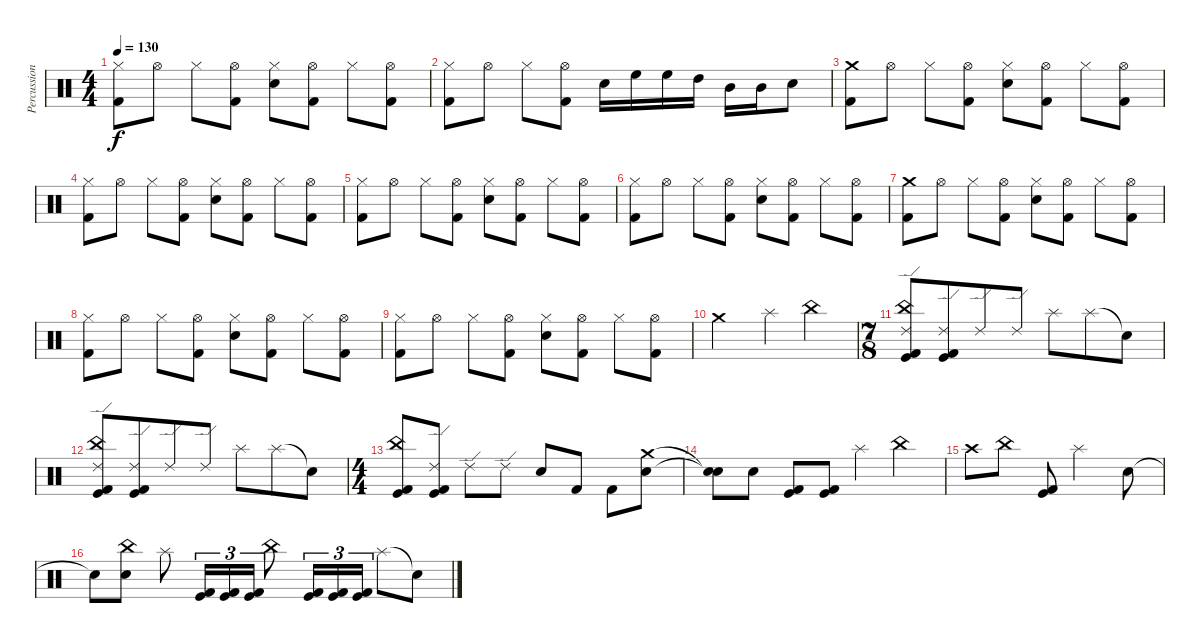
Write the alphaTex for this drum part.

\track ("Percussion" "Percussion") {instrument percussion}
\staff {score}
\articulation defaults
\ts (4 4)
\tempo 130
\clef neutral
\ks c
("Hi-Hat (closed)" "Kick (hit) 2").8{dy f} "Hi-Hat (open)".8 "Hi-Hat (closed)".8 ("Hi-Hat (open)" "Kick (hit) 2").8 ("Hi-Hat (closed)" "Snare (hit) 2").8 ("Hi-Hat (open)" "Kick (hit) 2").8 "Hi-Hat (closed)".8 ("Hi-Hat (open)" "Kick (hit) 2").8 |
("Hi-Hat (closed)" "Kick (hit) 2").8 "Hi-Hat (open)".8 "Hi-Hat (closed)".8 ("Hi-Hat (open)" "Kick (hit) 2").8 "Snare (hit) 2".16 "High Floor Tom (hit)".16 "High Floor Tom (hit)".16 "High Tom (hit)".16 "Mid Tom (hit)".16 "Mid Tom (hit)".16 "Snare (hit) 2".8 |
("Crash medium (hit)" "Kick (hit) 2").8 "Hi-Hat (open)".8 "Hi-Hat (closed)".8 ("Hi-Hat (open)" "Kick (hit) 2").8 ("Hi-Hat (closed)" "Snare (hit) 2").8 ("Hi-Hat (open)" "Kick (hit) 2").8 "Hi-Hat (closed)".8 ("Hi-Hat (open)" "Kick (hit) 2").8 |
("Hi-Hat (closed)" "Kick (hit) 2").8 "Hi-Hat (open)".8 "Hi-Hat (closed)".8 ("Hi-Hat (open)" "Kick (hit) 2").8 ("Hi-Hat (closed)" "Snare (hit) 2").8 ("Hi-Hat (open)" "Kick (hit) 2").8 "Hi-Hat (closed)".8 ("Hi-Hat (open)" "Kick (hit) 2").8 |
("Hi-Hat (closed)" "Kick (hit) 2").8 "Hi-Hat (open)".8 "Hi-Hat (closed)".8 ("Hi-Hat (open)" "Kick (hit) 2").8 ("Hi-Hat (closed)" "Snare (hit) 2").8 ("Hi-Hat (open)" "Kick (hit) 2").8 "Hi-Hat (closed)".8 ("Hi-Hat (open)" "Kick (hit) 2").8 |
("Hi-Hat (closed)" "Kick (hit) 2").8 "Hi-Hat (open)".8 "Hi-Hat (closed)".8 ("Hi-Hat (open)" "Kick (hit) 2").8 ("Hi-Hat (closed)" "Snare (hit) 2").8 ("Hi-Hat (open)" "Kick (hit) 2").8 "Hi-Hat (closed)".8 ("Hi-Hat (open)" "Kick (hit) 2").8 |
("Crash medium (hit)" "Kick (hit) 2").8 "Hi-Hat (open)".8 "Hi-Hat (closed)".8 ("Hi-Hat (open)" "Kick (hit) 2").8 ("Hi-Hat (closed)" "Snare (hit) 2").8 ("Hi-Hat (open)" "Kick (hit) 2").8 "Hi-Hat (closed)".8 ("Hi-Hat (open)" "Kick (hit) 2").8 |
("Hi-Hat (closed)" "Kick (hit) 2").8 "Hi-Hat (open)".8 "Hi-Hat (closed)".8 ("Hi-Hat (open)" "Kick (hit) 2").8 ("Hi-Hat (closed)" "Snare (hit) 2").8 ("Hi-Hat (open)" "Kick (hit) 2").8 "Hi-Hat (closed)".8 ("Hi-Hat (open)" "Kick (hit) 2").8 |
("Hi-Hat (closed)" "Kick (hit) 2").8 "Hi-Hat (open)".8 "Hi-Hat (closed)".8 ("Hi-Hat (open)" "Kick (hit) 2").8 ("Hi-Hat (closed)" "Snare (hit) 2").8 ("Hi-Hat (open)" "Kick (hit) 2").8 "Hi-Hat (closed)".8 ("Hi-Hat (open)" "Kick (hit) 2").8 |
"Crash medium (hit)".2 "Splash (hit)".4 "China (hit)".4 |
\ts (7 8)
("China (hit)" "Ride (edge) 2" "Kick (hit)" "Kick (hit) 2").8 ("Ride (edge) 2" "Kick (hit)" "Kick (hit) 2").8 "Ride (edge) 2".8 "Ride (edge) 2".8 "Splash (hit)".8 "Splash (hit)".8 "Snare (hit)"{t}.8 |
("China (hit)" "Ride (edge) 2" "Kick (hit)" "Kick (hit) 2").8 ("Ride (edge) 2" "Kick (hit)" "Kick (hit) 2").8 "Ride (edge) 2".8 "Ride (edge) 2".8 "Splash (hit)".8 "Splash (hit)".8 "Snare (hit)"{t}.8 |
\ts (4 4)
("China (hit)" "Kick (hit)" "Kick (hit) 2").8 ("Ride (edge) 2" "Kick (hit) 2" "Kick (hit)").8 "Ride (edge) 2".8 "Ride (edge) 2".8 "Snare (hit) 2".8 "Kick (hit) 2".8 "Kick (hit) 2".8 ("Crash medium (hit)" "Snare (hit) 2").8 |
("Snare (hit)"{t} "Snare (hit)"{t}).8 "Snare (hit) 2".8 ("Kick (hit)" "Kick (hit) 2").8 ("Kick (hit)" "Kick (hit) 2").8 "Splash (hit)".4 "China (hit)".4 |
"Crash high (hit)".8 "China (hit)".8 ("Kick (hit)" "Kick (hit) 2").8 "Splash (hit)".2 "Snare (hit) 2".8 |
"Snare (hit)"{t}.8 ("China (hit)" "Snare (hit) 2").8 "Splash (hit)".8 ("Kick (hit)" "Kick (hit) 2").16{tu (3 2)} ("Kick (hit)" "Kick (hit) 2").16{tu (3 2)} ("Kick (hit)" "Kick (hit) 2").16{tu (3 2)} "China (hit)".8 ("Kick (hit)" "Kick (hit) 2").16{tu (3 2)} ("Kick (hit)" "Kick (hit) 2").16{tu (3 2)} ("Kick (hit)" "Kick (hit) 2").16{tu (3 2)} "Splash (hit)".8 "Snare (hit)"{t}.8
